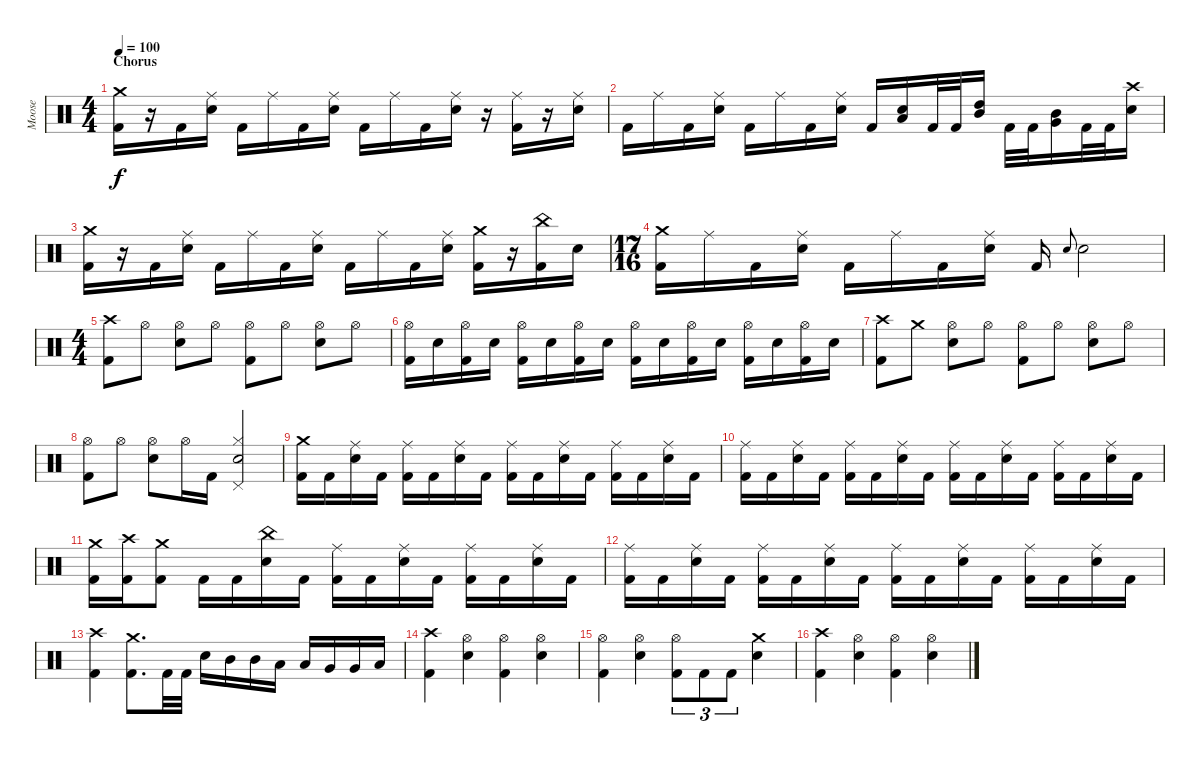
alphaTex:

\track ("Moose" "Moose") {instrument percussion}
\staff {score}
\articulation defaults
\ts (4 4)
\section ("" "Chorus")
\tempo 100
\clef neutral
\ks c
("Crash medium (hit)" "Kick (hit) 2").16{dy f} r.16 "Kick (hit) 2".16 ("Ride (middle)" "Electric Snare (hit)").16 "Kick (hit) 2".16 "Ride (middle)".16 "Kick (hit) 2".16 ("Ride (middle)" "Electric Snare (hit)").16 "Kick (hit) 2".16 "Ride (middle)".16 "Kick (hit) 2".16 ("Ride (middle)" "Electric Snare (hit)").16 r.16 ("Ride (middle)" "Kick (hit) 2").16 r.16 ("Ride (middle)" "Electric Snare (hit)").16 |
"Kick (hit) 2".16 "Ride (middle)".16 "Kick (hit) 2".16 ("Ride (middle)" "Electric Snare (hit)").16 "Kick (hit) 2".16 "Ride (middle)".16 "Kick (hit) 2".16 ("Ride (middle)" "Electric Snare (hit)").16 "Kick (hit) 2".16 ("Low Tom (hit)" "Electric Snare (hit)").16 "Kick (hit) 2".32 "Kick (hit) 2".32 ("Mid Tom (hit)" "High Tom (hit)").16 "Kick (hit) 2".32 "Kick (hit) 2".32 ("Very Low Tom (hit)" "Mid Tom (hit)").16 "Kick (hit) 2".32 "Kick (hit) 2".32 ("Crash high (hit)" "Electric Snare (hit)").16 |
("Crash medium (hit)" "Kick (hit) 2").16 r.16 "Kick (hit) 2".16 ("Ride (middle)" "Electric Snare (hit)").16 "Kick (hit) 2".16 "Ride (middle)".16 "Kick (hit) 2".16 ("Ride (middle)" "Electric Snare (hit)").16 "Kick (hit) 2".16 "Ride (middle)".16 "Kick (hit) 2".16 ("Ride (middle)" "Electric Snare (hit)").16 ("Crash medium (hit)" "Kick (hit) 2").16 r.16 ("China (hit)" "Kick (hit) 2").16 "Electric Snare (hit)".16 |
\ts (17 16)
("Crash medium (hit)" "Kick (hit) 2").16 "Ride (middle)".16 "Kick (hit) 2".16 ("Ride (middle)" "Electric Snare (hit)").16 "Kick (hit) 2".16 "Ride (middle)".16 "Kick (hit) 2".16 ("Ride (middle)" "Electric Snare (hit)").16 "Kick (hit) 2".16 "Electric Snare (hit)".8{gr onbeat} "Electric Snare (hit)".2 |
\ts (4 4)
("Crash high (hit)" "Kick (hit) 2").8 "Hi-Hat (open)".8 ("Hi-Hat (open)" "Electric Snare (hit)").8 "Hi-Hat (open)".8 ("Hi-Hat (open)" "Kick (hit) 2").8 "Hi-Hat (open)".8 ("Hi-Hat (open)" "Electric Snare (hit)").8 "Hi-Hat (open)".8 |
("Hi-Hat (open)" "Kick (hit) 2").16 "Electric Snare (hit)".16 ("Hi-Hat (open)" "Kick (hit) 2").16 "Electric Snare (hit)".16 ("Hi-Hat (open)" "Kick (hit) 2").16 "Electric Snare (hit)".16 ("Hi-Hat (open)" "Kick (hit) 2").16 "Electric Snare (hit)".16 ("Hi-Hat (open)" "Kick (hit) 2").16 "Electric Snare (hit)".16 ("Hi-Hat (open)" "Kick (hit) 2").16 "Electric Snare (hit)".16 ("Hi-Hat (open)" "Kick (hit) 2").16 "Electric Snare (hit)".16 ("Hi-Hat (open)" "Kick (hit) 2").16 "Electric Snare (hit)".16 |
("Crash high (hit)" "Kick (hit) 2").8 "Crash medium (hit)".8 ("Hi-Hat (open)" "Electric Snare (hit)").8 "Hi-Hat (open)".8 ("Hi-Hat (open)" "Kick (hit) 2").8 "Hi-Hat (open)".8 ("Hi-Hat (open)" "Electric Snare (hit)").8 "Hi-Hat (open)".8 |
("Hi-Hat (open)" "Kick (hit) 2").8 "Hi-Hat (open)".8 ("Hi-Hat (open)" "Electric Snare (hit)").8 "Hi-Hat (open)".16 "Kick (hit) 2".16 ("Hi-Hat (closed)" "Pedal Hi-Hat (hit)" "Electric Snare (hit)").2 |
("Crash medium (hit)" "Kick (hit) 2").16 "Kick (hit) 2".16 ("Ride (middle)" "Electric Snare (hit)").16 "Kick (hit) 2".16 ("Ride (middle)" "Kick (hit) 2").16 "Kick (hit) 2".16 ("Ride (middle)" "Electric Snare (hit)").16 "Kick (hit) 2".16 ("Ride (middle)" "Kick (hit) 2").16 "Kick (hit) 2".16 ("Ride (middle)" "Electric Snare (hit)").16 "Kick (hit) 2".16 ("Ride (middle)" "Kick (hit) 2").16 "Kick (hit) 2".16 ("Ride (middle)" "Electric Snare (hit)").16 "Kick (hit) 2".16 |
("Ride (middle)" "Kick (hit) 2").16 "Kick (hit) 2".16 ("Ride (middle)" "Electric Snare (hit)").16 "Kick (hit) 2".16 ("Ride (middle)" "Kick (hit) 2").16 "Kick (hit) 2".16 ("Ride (middle)" "Electric Snare (hit)").16 "Kick (hit) 2".16 ("Ride (middle)" "Kick (hit) 2").16 "Kick (hit) 2".16 ("Ride (middle)" "Electric Snare (hit)").16 "Kick (hit) 2".16 ("Ride (middle)" "Kick (hit) 2").16 "Kick (hit) 2".16 ("Ride (middle)" "Electric Snare (hit)").16 "Kick (hit) 2".16 |
("Crash medium (hit)" "Kick (hit) 2").16 ("Crash high (hit)" "Kick (hit) 2").16 ("Crash medium (hit)" "Kick (hit) 2").8 "Kick (hit) 2".16 "Kick (hit) 2".16 ("China (hit)" "Electric Snare (hit)").16 "Kick (hit) 2".16 ("Ride (middle)" "Kick (hit) 2").16 "Kick (hit) 2".16 ("Ride (middle)" "Electric Snare (hit)").16 "Kick (hit) 2".16 ("Ride (middle)" "Kick (hit) 2").16 "Kick (hit) 2".16 ("Ride (middle)" "Electric Snare (hit)").16 "Kick (hit) 2".16 |
("Ride (middle)" "Kick (hit) 2").16 "Kick (hit) 2".16 ("Ride (middle)" "Electric Snare (hit)").16 "Kick (hit) 2".16 ("Ride (middle)" "Kick (hit) 2").16 "Kick (hit) 2".16 ("Ride (middle)" "Electric Snare (hit)").16 "Kick (hit) 2".16 ("Ride (middle)" "Kick (hit) 2").16 "Kick (hit) 2".16 ("Ride (middle)" "Electric Snare (hit)").16 "Kick (hit) 2".16 ("Ride (middle)" "Kick (hit) 2").16 "Kick (hit) 2".16 ("Ride (middle)" "Electric Snare (hit)").16 "Kick (hit) 2".16 |
("Crash high (hit)" "Kick (hit) 2").4 ("Crash medium (hit)" "Kick (hit) 2").8{d} "Kick (hit) 2".32 "Kick (hit) 2".32 "Electric Snare (hit)".16 "Mid Tom (hit)".16 "Mid Tom (hit)".16 "Low Tom (hit)".16 "Low Tom (hit)".16 "Very Low Tom (hit)".16 "Very Low Tom (hit)".16 "Low Floor Tom (hit)".16 |
("Crash high (hit)" "Kick (hit) 2").4 ("Hi-Hat (open)" "Electric Snare (hit)").4 ("Hi-Hat (open)" "Kick (hit) 2").4 ("Hi-Hat (open)" "Electric Snare (hit)").4 |
("Hi-Hat (open)" "Kick (hit) 2").4 ("Hi-Hat (open)" "Electric Snare (hit)").4 ("Hi-Hat (open)" "Kick (hit) 2").8{tu (3 2)} "Kick (hit) 2".8{tu (3 2)} "Kick (hit) 2".8{tu (3 2)} ("Crash medium (hit)" "Electric Snare (hit)").4 |
("Crash high (hit)" "Kick (hit) 2").4 ("Hi-Hat (open)" "Electric Snare (hit)").4 ("Hi-Hat (open)" "Kick (hit) 2").4 ("Hi-Hat (open)" "Electric Snare (hit)").4
